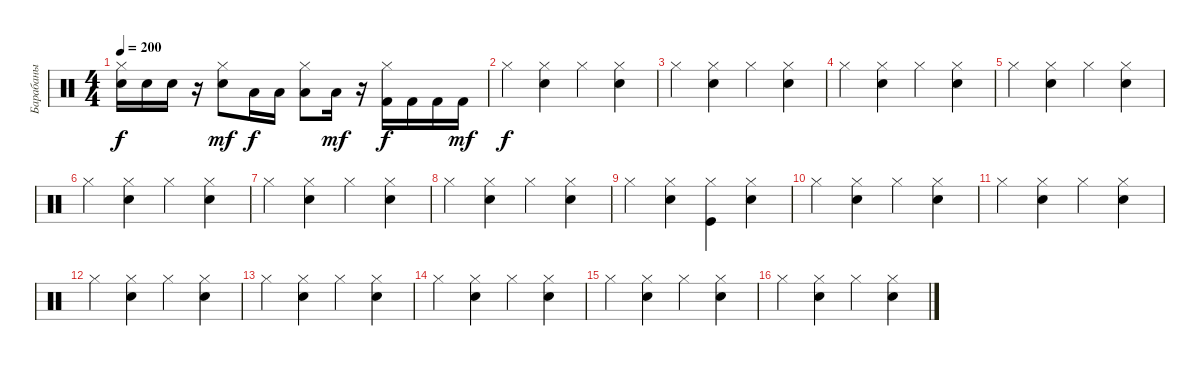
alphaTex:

\track ("Барабаны" "Барабаны") {instrument percussion}
\staff {score}
\articulation defaults
\ts (4 4)
\tempo 200
\clef neutral
\ks c
("Snare (hit) 2" "Hi-Hat (closed)").16{dy f} "Snare (hit) 2".16 "Snare (hit) 2".16 r.16 ("Snare (hit) 2" "Hi-Hat (closed)").8{dy mf} "Low Floor Tom (hit)".16{dy f} "Low Floor Tom (hit)".16 ("Low Floor Tom (hit)" "Hi-Hat (closed)").8 "Low Floor Tom (hit)".16{dy mf} r.16 ("Kick (hit) 2" "Hi-Hat (closed)").16{dy f} "Kick (hit) 2".16 "Kick (hit) 2".16 "Kick (hit) 2".16{dy mf} |
"Hi-Hat (closed)".4{dy f} ("Snare (hit) 2" "Hi-Hat (closed)").4 "Hi-Hat (closed)".4 ("Snare (hit) 2" "Hi-Hat (closed)").4 |
"Hi-Hat (closed)".4 ("Snare (hit) 2" "Hi-Hat (closed)").4 "Hi-Hat (closed)".4 ("Snare (hit) 2" "Hi-Hat (closed)").4 |
"Hi-Hat (closed)".4 ("Snare (hit) 2" "Hi-Hat (closed)").4 "Hi-Hat (closed)".4 ("Snare (hit) 2" "Hi-Hat (closed)").4 |
"Hi-Hat (closed)".4 ("Snare (hit) 2" "Hi-Hat (closed)").4 "Hi-Hat (closed)".4 ("Snare (hit) 2" "Hi-Hat (closed)").4 |
"Hi-Hat (closed)".4 ("Snare (hit) 2" "Hi-Hat (closed)").4 "Hi-Hat (closed)".4 ("Snare (hit) 2" "Hi-Hat (closed)").4 |
"Hi-Hat (closed)".4 ("Snare (hit) 2" "Hi-Hat (closed)").4 "Hi-Hat (closed)".4 ("Snare (hit) 2" "Hi-Hat (closed)").4 |
"Hi-Hat (closed)".4 ("Snare (hit) 2" "Hi-Hat (closed)").4 "Hi-Hat (closed)".4 ("Snare (hit) 2" "Hi-Hat (closed)").4 |
"Hi-Hat (closed)".4 ("Snare (hit) 2" "Hi-Hat (closed)").4 ("Kick (hit)" "Hi-Hat (closed)").4 ("Snare (hit) 2" "Hi-Hat (closed)").4 |
"Hi-Hat (closed)".4 ("Snare (hit) 2" "Hi-Hat (closed)").4 "Hi-Hat (closed)".4 ("Snare (hit) 2" "Hi-Hat (closed)").4 |
"Hi-Hat (closed)".4 ("Snare (hit) 2" "Hi-Hat (closed)").4 "Hi-Hat (closed)".4 ("Snare (hit) 2" "Hi-Hat (closed)").4 |
"Hi-Hat (closed)".4 ("Snare (hit) 2" "Hi-Hat (closed)").4 "Hi-Hat (closed)".4 ("Snare (hit) 2" "Hi-Hat (closed)").4 |
"Hi-Hat (closed)".4 ("Snare (hit) 2" "Hi-Hat (closed)").4 "Hi-Hat (closed)".4 ("Snare (hit) 2" "Hi-Hat (closed)").4 |
"Hi-Hat (closed)".4 ("Snare (hit) 2" "Hi-Hat (closed)").4 "Hi-Hat (closed)".4 ("Snare (hit) 2" "Hi-Hat (closed)").4 |
"Hi-Hat (closed)".4 ("Snare (hit) 2" "Hi-Hat (closed)").4 "Hi-Hat (closed)".4 ("Snare (hit) 2" "Hi-Hat (closed)").4 |
"Hi-Hat (closed)".4 ("Snare (hit) 2" "Hi-Hat (closed)").4 "Hi-Hat (closed)".4 ("Snare (hit) 2" "Hi-Hat (closed)").4
